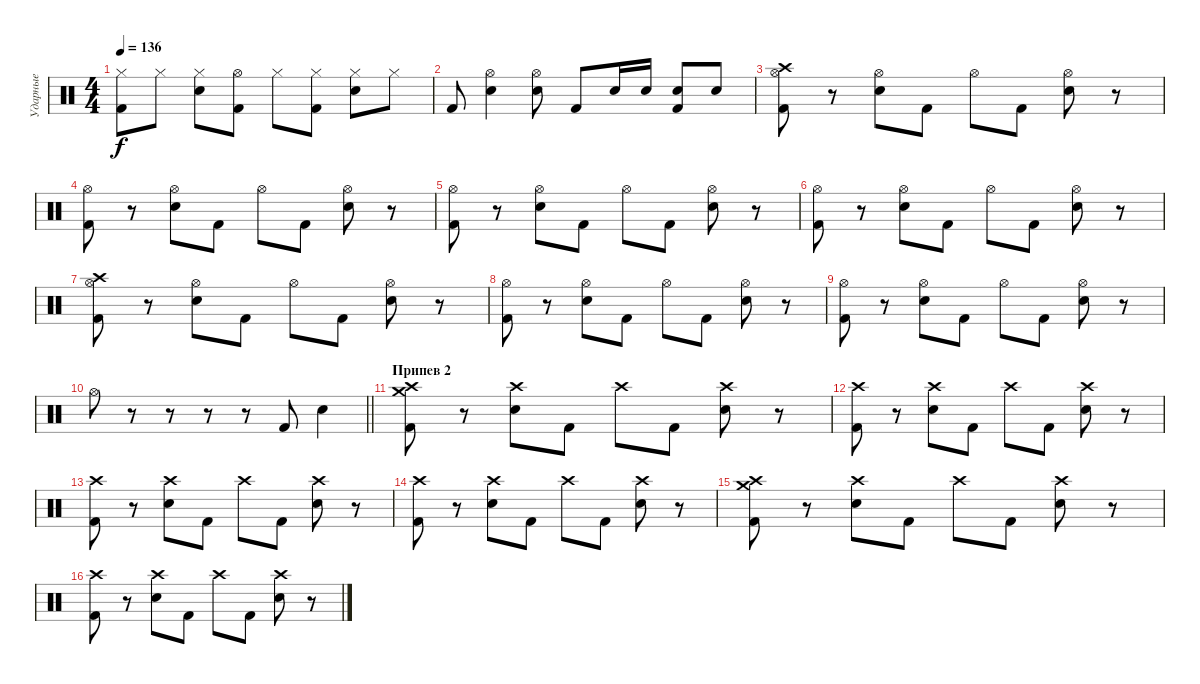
\track ("Ударные" "Ударные") {instrument percussion}
\staff {score}
\articulation defaults
\ts (4 4)
\tempo 136
\clef neutral
\ks c
("Hi-Hat (closed)" "Kick (hit) 2").8{dy f} "Hi-Hat (closed)".8 ("Hi-Hat (closed)" "Electric Snare (hit)").8 ("Hi-Hat (open)" "Kick (hit) 2").8 "Hi-Hat (closed)".8 ("Hi-Hat (closed)" "Kick (hit) 2").8 ("Hi-Hat (closed)" "Electric Snare (hit)").8 "Hi-Hat (closed)".8 |
"Kick (hit) 2".8 ("Hi-Hat (open)" "Electric Snare (hit)").4 ("Hi-Hat (open)" "Electric Snare (hit)").8 "Kick (hit) 2".8 "Electric Snare (hit)".16 "Electric Snare (hit)".16 ("Electric Snare (hit)" "Kick (hit) 2").8 "Electric Snare (hit)".8 |
("Hi-Hat (open)" "Crash high (hit)" "Kick (hit) 2").8 r.8 ("Hi-Hat (open)" "Electric Snare (hit)").8 "Kick (hit) 2".8 "Hi-Hat (open)".8 "Kick (hit) 2".8 ("Hi-Hat (open)" "Electric Snare (hit)").8 r.8 |
("Hi-Hat (open)" "Kick (hit) 2").8 r.8 ("Hi-Hat (open)" "Electric Snare (hit)").8 "Kick (hit) 2".8 "Hi-Hat (open)".8 "Kick (hit) 2".8 ("Hi-Hat (open)" "Electric Snare (hit)").8 r.8 |
("Hi-Hat (open)" "Kick (hit) 2").8 r.8 ("Hi-Hat (open)" "Electric Snare (hit)").8 "Kick (hit) 2".8 "Hi-Hat (open)".8 "Kick (hit) 2".8 ("Hi-Hat (open)" "Electric Snare (hit)").8 r.8 |
("Hi-Hat (open)" "Kick (hit) 2").8 r.8 ("Hi-Hat (open)" "Electric Snare (hit)").8 "Kick (hit) 2".8 "Hi-Hat (open)".8 "Kick (hit) 2".8 ("Hi-Hat (open)" "Electric Snare (hit)").8 r.8 |
("Hi-Hat (open)" "Crash high (hit)" "Kick (hit) 2").8 r.8 ("Hi-Hat (open)" "Electric Snare (hit)").8 "Kick (hit) 2".8 "Hi-Hat (open)".8 "Kick (hit) 2".8 ("Hi-Hat (open)" "Electric Snare (hit)").8 r.8 |
("Hi-Hat (open)" "Kick (hit) 2").8 r.8 ("Hi-Hat (open)" "Electric Snare (hit)").8 "Kick (hit) 2".8 "Hi-Hat (open)".8 "Kick (hit) 2".8 ("Hi-Hat (open)" "Electric Snare (hit)").8 r.8 |
("Hi-Hat (open)" "Kick (hit) 2").8 r.8 ("Hi-Hat (open)" "Electric Snare (hit)").8 "Kick (hit) 2".8 "Hi-Hat (open)".8 "Kick (hit) 2".8 ("Hi-Hat (open)" "Electric Snare (hit)").8 r.8 |
\barLineRight lightlight "Hi-Hat (open)".8
r.8 r.8 r.8 r.8 "Kick (hit) 2".8 "Electric Snare (hit)".4 |
\section ("" "Припев 2")
("Crash high (hit)" "Crash medium (hit)" "Kick (hit) 2").8 r.8 ("Crash high (hit)" "Electric Snare (hit)").8 "Kick (hit) 2".8 "Crash high (hit)".8 "Kick (hit) 2".8 ("Crash high (hit)" "Electric Snare (hit)").8 r.8 |
("Crash high (hit)" "Kick (hit) 2").8 r.8 ("Crash high (hit)" "Electric Snare (hit)").8 "Kick (hit) 2".8 "Crash high (hit)".8 "Kick (hit) 2".8 ("Crash high (hit)" "Electric Snare (hit)").8 r.8 |
("Crash high (hit)" "Kick (hit) 2").8 r.8 ("Crash high (hit)" "Electric Snare (hit)").8 "Kick (hit) 2".8 "Crash high (hit)".8 "Kick (hit) 2".8 ("Crash high (hit)" "Electric Snare (hit)").8 r.8 |
("Crash high (hit)" "Kick (hit) 2").8 r.8 ("Crash high (hit)" "Electric Snare (hit)").8 "Kick (hit) 2".8 "Crash high (hit)".8 "Kick (hit) 2".8 ("Crash high (hit)" "Electric Snare (hit)").8 r.8 |
("Crash high (hit)" "Crash medium (hit)" "Kick (hit) 2").8 r.8 ("Crash high (hit)" "Electric Snare (hit)").8 "Kick (hit) 2".8 "Crash high (hit)".8 "Kick (hit) 2".8 ("Crash high (hit)" "Electric Snare (hit)").8 r.8 |
("Crash high (hit)" "Kick (hit) 2").8 r.8 ("Crash high (hit)" "Electric Snare (hit)").8 "Kick (hit) 2".8 "Crash high (hit)".8 "Kick (hit) 2".8 ("Crash high (hit)" "Electric Snare (hit)").8 r.8
